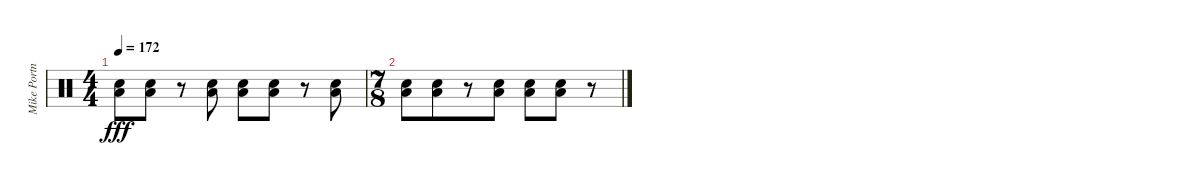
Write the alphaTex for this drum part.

\track ("Mike Portnoy" "Mike Portn") {instrument percussion}
\staff {score}
\articulation defaults
\ts (4 4)
\tempo 172
\clef neutral
\ks c
("Low Floor Tom (hit)" "Snare (hit) 2").8{dy fff} ("Low Floor Tom (hit)" "Snare (hit) 2").8 r.8 ("Low Floor Tom (hit)" "Snare (hit) 2").8 ("Low Floor Tom (hit)" "Snare (hit) 2").8 ("Low Floor Tom (hit)" "Snare (hit) 2").8 r.8 ("Low Floor Tom (hit)" "Snare (hit) 2").8 |
\ts (7 8)
("Low Floor Tom (hit)" "Snare (hit) 2").8 ("Low Floor Tom (hit)" "Snare (hit) 2").8 r.8 ("Low Floor Tom (hit)" "Snare (hit) 2").8 ("Low Floor Tom (hit)" "Snare (hit) 2").8 ("Low Floor Tom (hit)" "Snare (hit) 2").8 r.8
